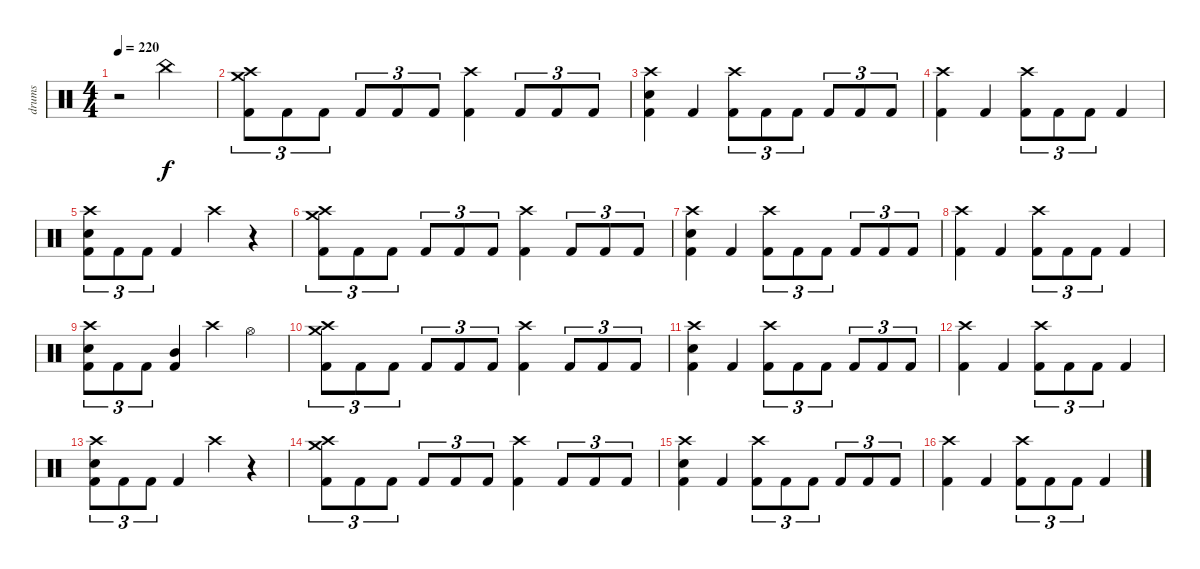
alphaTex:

\track ("drums" "drums") {instrument percussion}
\staff {score}
\articulation defaults
\ts (4 4)
\tempo 220
\clef neutral
\ks c
r.2{dy f} "China (hit)".2 |
("Crash high (hit)" "Crash medium (hit)" "Kick (hit) 2").8{tu (3 2)} "Kick (hit) 2".8{tu (3 2)} "Kick (hit) 2".8{tu (3 2)} "Kick (hit) 2".8{tu (3 2)} "Kick (hit) 2".8{tu (3 2)} "Kick (hit) 2".8{tu (3 2)} ("Crash high (hit)" "Kick (hit) 2").4 "Kick (hit) 2".8{tu (3 2)} "Kick (hit) 2".8{tu (3 2)} "Kick (hit) 2".8{tu (3 2)} |
("Crash high (hit)" "Electric Snare (hit)" "Kick (hit) 2").4 "Kick (hit) 2".4 ("Crash high (hit)" "Kick (hit) 2").8{tu (3 2)} "Kick (hit) 2".8{tu (3 2)} "Kick (hit) 2".8{tu (3 2)} "Kick (hit) 2".8{tu (3 2)} "Kick (hit) 2".8{tu (3 2)} "Kick (hit) 2".8{tu (3 2)} |
("Crash high (hit)" "Kick (hit) 2").4 "Kick (hit) 2".4 ("Crash high (hit)" "Kick (hit) 2").8{tu (3 2)} "Kick (hit) 2".8{tu (3 2)} "Kick (hit) 2".8{tu (3 2)} "Kick (hit) 2".4 |
("Crash high (hit)" "Electric Snare (hit)" "Kick (hit) 2").8{tu (3 2)} "Kick (hit) 2".8{tu (3 2)} "Kick (hit) 2".8{tu (3 2)} "Kick (hit) 2".4 "Crash high (hit)".4 r.4 |
("Crash high (hit)" "Crash medium (hit)" "Kick (hit) 2").8{tu (3 2)} "Kick (hit) 2".8{tu (3 2)} "Kick (hit) 2".8{tu (3 2)} "Kick (hit) 2".8{tu (3 2)} "Kick (hit) 2".8{tu (3 2)} "Kick (hit) 2".8{tu (3 2)} ("Crash high (hit)" "Kick (hit) 2").4 "Kick (hit) 2".8{tu (3 2)} "Kick (hit) 2".8{tu (3 2)} "Kick (hit) 2".8{tu (3 2)} |
("Crash high (hit)" "Electric Snare (hit)" "Kick (hit) 2").4 "Kick (hit) 2".4 ("Crash high (hit)" "Kick (hit) 2").8{tu (3 2)} "Kick (hit) 2".8{tu (3 2)} "Kick (hit) 2".8{tu (3 2)} "Kick (hit) 2".8{tu (3 2)} "Kick (hit) 2".8{tu (3 2)} "Kick (hit) 2".8{tu (3 2)} |
("Crash high (hit)" "Kick (hit) 2").4 "Kick (hit) 2".4 ("Crash high (hit)" "Kick (hit) 2").8{tu (3 2)} "Kick (hit) 2".8{tu (3 2)} "Kick (hit) 2".8{tu (3 2)} "Kick (hit) 2".4 |
("Crash high (hit)" "Electric Snare (hit)" "Kick (hit) 2").8{tu (3 2)} "Kick (hit) 2".8{tu (3 2)} "Kick (hit) 2".8{tu (3 2)} ("Mid Tom (hit)" "Kick (hit) 2").4 "Crash high (hit)".4 "Hi-Hat (open)".4 |
("Crash high (hit)" "Crash medium (hit)" "Kick (hit) 2").8{tu (3 2)} "Kick (hit) 2".8{tu (3 2)} "Kick (hit) 2".8{tu (3 2)} "Kick (hit) 2".8{tu (3 2)} "Kick (hit) 2".8{tu (3 2)} "Kick (hit) 2".8{tu (3 2)} ("Crash high (hit)" "Kick (hit) 2").4 "Kick (hit) 2".8{tu (3 2)} "Kick (hit) 2".8{tu (3 2)} "Kick (hit) 2".8{tu (3 2)} |
("Crash high (hit)" "Electric Snare (hit)" "Kick (hit) 2").4 "Kick (hit) 2".4 ("Crash high (hit)" "Kick (hit) 2").8{tu (3 2)} "Kick (hit) 2".8{tu (3 2)} "Kick (hit) 2".8{tu (3 2)} "Kick (hit) 2".8{tu (3 2)} "Kick (hit) 2".8{tu (3 2)} "Kick (hit) 2".8{tu (3 2)} |
("Crash high (hit)" "Kick (hit) 2").4 "Kick (hit) 2".4 ("Crash high (hit)" "Kick (hit) 2").8{tu (3 2)} "Kick (hit) 2".8{tu (3 2)} "Kick (hit) 2".8{tu (3 2)} "Kick (hit) 2".4 |
("Crash high (hit)" "Electric Snare (hit)" "Kick (hit) 2").8{tu (3 2)} "Kick (hit) 2".8{tu (3 2)} "Kick (hit) 2".8{tu (3 2)} "Kick (hit) 2".4 "Crash high (hit)".4 r.4 |
("Crash high (hit)" "Crash medium (hit)" "Kick (hit) 2").8{tu (3 2)} "Kick (hit) 2".8{tu (3 2)} "Kick (hit) 2".8{tu (3 2)} "Kick (hit) 2".8{tu (3 2)} "Kick (hit) 2".8{tu (3 2)} "Kick (hit) 2".8{tu (3 2)} ("Crash high (hit)" "Kick (hit) 2").4 "Kick (hit) 2".8{tu (3 2)} "Kick (hit) 2".8{tu (3 2)} "Kick (hit) 2".8{tu (3 2)} |
("Crash high (hit)" "Electric Snare (hit)" "Kick (hit) 2").4 "Kick (hit) 2".4 ("Crash high (hit)" "Kick (hit) 2").8{tu (3 2)} "Kick (hit) 2".8{tu (3 2)} "Kick (hit) 2".8{tu (3 2)} "Kick (hit) 2".8{tu (3 2)} "Kick (hit) 2".8{tu (3 2)} "Kick (hit) 2".8{tu (3 2)} |
("Crash high (hit)" "Kick (hit) 2").4 "Kick (hit) 2".4 ("Crash high (hit)" "Kick (hit) 2").8{tu (3 2)} "Kick (hit) 2".8{tu (3 2)} "Kick (hit) 2".8{tu (3 2)} "Kick (hit) 2".4
